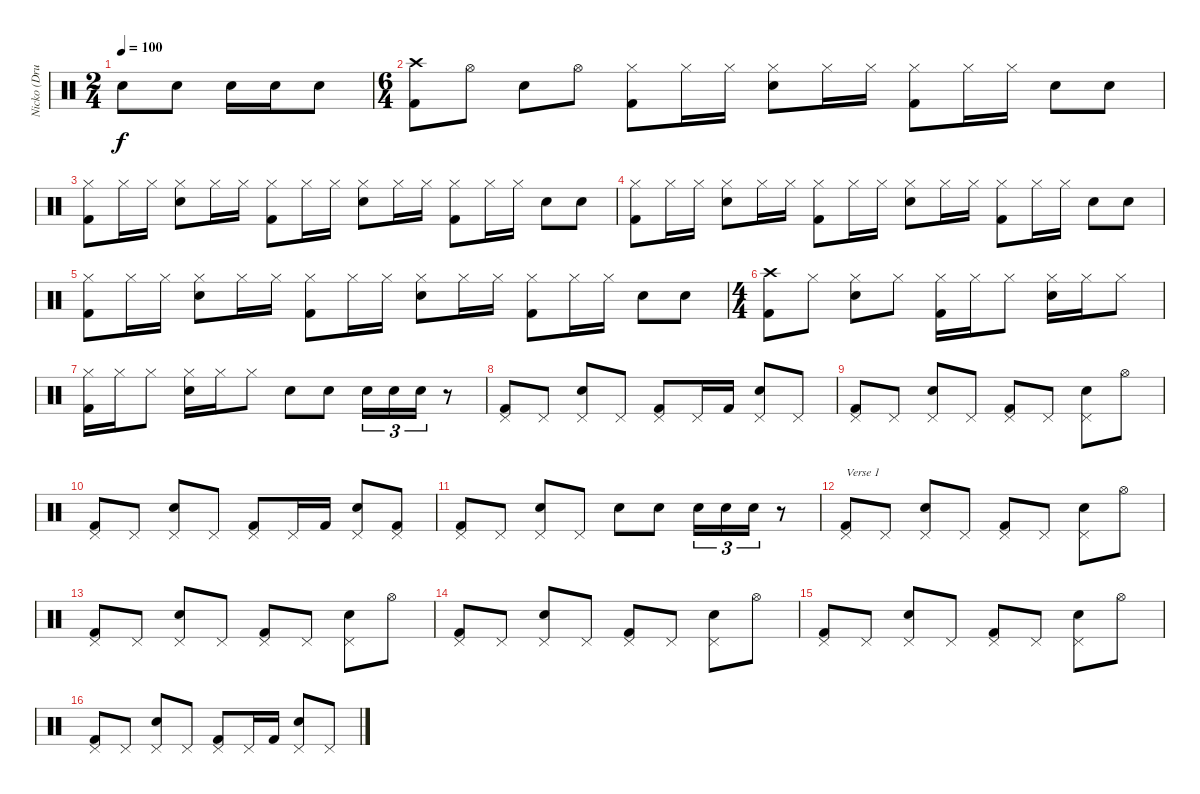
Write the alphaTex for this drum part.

\track ("Nicko (Drums)" "Nicko (Dru") {instrument percussion}
\staff {score}
\articulation defaults
\ts (2 4)
\tempo 100
\clef neutral
\ks c "Snare (hit) 2".8{dy f} "Snare (hit) 2".8 "Snare (hit) 2".16 "Snare (hit) 2".16 "Snare (hit) 2".8
|
\ts (6 4)
("Crash high (hit)" "Kick (hit) 2").8 "Hi-Hat (open)".8 "Snare (hit) 2".8 "Hi-Hat (open)".8 ("Hi-Hat (closed)" "Kick (hit) 2").8 "Hi-Hat (closed)".16 "Hi-Hat (closed)".16 ("Hi-Hat (closed)" "Snare (hit) 2").8 "Hi-Hat (closed)".16 "Hi-Hat (closed)".16 ("Hi-Hat (closed)" "Kick (hit) 2").8 "Hi-Hat (closed)".16 "Hi-Hat (closed)".16 "Snare (hit) 2".8 "Snare (hit) 2".8 |
("Hi-Hat (closed)" "Kick (hit) 2").8 "Hi-Hat (closed)".16 "Hi-Hat (closed)".16 ("Hi-Hat (closed)" "Snare (hit) 2").8 "Hi-Hat (closed)".16 "Hi-Hat (closed)".16 ("Hi-Hat (closed)" "Kick (hit) 2").8 "Hi-Hat (closed)".16 "Hi-Hat (closed)".16 ("Hi-Hat (closed)" "Snare (hit) 2").8 "Hi-Hat (closed)".16 "Hi-Hat (closed)".16 ("Hi-Hat (closed)" "Kick (hit) 2").8 "Hi-Hat (closed)".16 "Hi-Hat (closed)".16 "Snare (hit) 2".8 "Snare (hit) 2".8 |
("Hi-Hat (closed)" "Kick (hit) 2").8 "Hi-Hat (closed)".16 "Hi-Hat (closed)".16 ("Hi-Hat (closed)" "Snare (hit) 2").8 "Hi-Hat (closed)".16 "Hi-Hat (closed)".16 ("Hi-Hat (closed)" "Kick (hit) 2").8 "Hi-Hat (closed)".16 "Hi-Hat (closed)".16 ("Hi-Hat (closed)" "Snare (hit) 2").8 "Hi-Hat (closed)".16 "Hi-Hat (closed)".16 ("Hi-Hat (closed)" "Kick (hit) 2").8 "Hi-Hat (closed)".16 "Hi-Hat (closed)".16 "Snare (hit) 2".8 "Snare (hit) 2".8 |
("Hi-Hat (closed)" "Kick (hit) 2").8 "Hi-Hat (closed)".16 "Hi-Hat (closed)".16 ("Hi-Hat (closed)" "Snare (hit) 2").8 "Hi-Hat (closed)".16 "Hi-Hat (closed)".16 ("Hi-Hat (closed)" "Kick (hit) 2").8 "Hi-Hat (closed)".16 "Hi-Hat (closed)".16 ("Hi-Hat (closed)" "Snare (hit) 2").8 "Hi-Hat (closed)".16 "Hi-Hat (closed)".16 ("Hi-Hat (closed)" "Kick (hit) 2").8 "Hi-Hat (closed)".16 "Hi-Hat (closed)".16 "Snare (hit) 2".8 "Snare (hit) 2".8 |
\ts (4 4)
("Crash high (hit)" "Kick (hit) 2").8 "Hi-Hat (closed)".8 ("Hi-Hat (closed)" "Snare (hit) 2").8 "Hi-Hat (closed)".8 ("Hi-Hat (closed)" "Kick (hit) 2").16 "Hi-Hat (closed)".16 "Hi-Hat (closed)".8 ("Hi-Hat (closed)" "Snare (hit) 2").16 "Hi-Hat (closed)".16 "Hi-Hat (closed)".8 |
("Hi-Hat (closed)" "Kick (hit) 2").16 "Hi-Hat (closed)".16 "Hi-Hat (closed)".8 ("Hi-Hat (closed)" "Snare (hit) 2").16 "Hi-Hat (closed)".16 "Hi-Hat (closed)".8 "Snare (hit) 2".8 "Snare (hit) 2".8 "Snare (hit) 2".16{tu (3 2)} "Snare (hit) 2".16{tu (3 2)} "Snare (hit) 2".16{tu (3 2)} r.8 |
("Pedal Hi-Hat (hit)" "Kick (hit) 2").8 "Pedal Hi-Hat (hit)".8 ("Pedal Hi-Hat (hit)" "Snare (hit) 2").8 "Pedal Hi-Hat (hit)".8 ("Pedal Hi-Hat (hit)" "Kick (hit) 2").8 "Pedal Hi-Hat (hit)".16 "Kick (hit) 2".16 ("Pedal Hi-Hat (hit)" "Snare (hit) 2").8 "Pedal Hi-Hat (hit)".8 |
("Pedal Hi-Hat (hit)" "Kick (hit) 2").8 "Pedal Hi-Hat (hit)".8 ("Pedal Hi-Hat (hit)" "Snare (hit) 2").8 "Pedal Hi-Hat (hit)".8 ("Pedal Hi-Hat (hit)" "Kick (hit) 2").8 "Pedal Hi-Hat (hit)".8 ("Pedal Hi-Hat (hit)" "Snare (hit) 2").8 "Hi-Hat (open)".8 |
("Pedal Hi-Hat (hit)" "Kick (hit) 2").8 "Pedal Hi-Hat (hit)".8 ("Pedal Hi-Hat (hit)" "Snare (hit) 2").8 "Pedal Hi-Hat (hit)".8 ("Pedal Hi-Hat (hit)" "Kick (hit) 2").8 "Pedal Hi-Hat (hit)".16 "Kick (hit) 2".16 ("Pedal Hi-Hat (hit)" "Snare (hit) 2").8 ("Pedal Hi-Hat (hit)" "Kick (hit) 2").8 |
("Pedal Hi-Hat (hit)" "Kick (hit) 2").8 "Pedal Hi-Hat (hit)".8 ("Pedal Hi-Hat (hit)" "Snare (hit) 2").8 "Pedal Hi-Hat (hit)".8 "Snare (hit) 2".8 "Snare (hit) 2".8 "Snare (hit) 2".16{tu (3 2)} "Snare (hit) 2".16{tu (3 2)} "Snare (hit) 2".16{tu (3 2)} r.8 |
("Pedal Hi-Hat (hit)" "Kick (hit) 2").8{txt "Verse 1"} "Pedal Hi-Hat (hit)".8 ("Pedal Hi-Hat (hit)" "Snare (hit) 2").8 "Pedal Hi-Hat (hit)".8 ("Pedal Hi-Hat (hit)" "Kick (hit) 2").8 "Pedal Hi-Hat (hit)".8 ("Pedal Hi-Hat (hit)" "Snare (hit) 2").8 "Hi-Hat (open)".8 |
("Pedal Hi-Hat (hit)" "Kick (hit) 2").8 "Pedal Hi-Hat (hit)".8 ("Pedal Hi-Hat (hit)" "Snare (hit) 2").8 "Pedal Hi-Hat (hit)".8 ("Pedal Hi-Hat (hit)" "Kick (hit) 2").8 "Pedal Hi-Hat (hit)".8 ("Pedal Hi-Hat (hit)" "Snare (hit) 2").8 "Hi-Hat (open)".8 |
("Pedal Hi-Hat (hit)" "Kick (hit) 2").8 "Pedal Hi-Hat (hit)".8 ("Pedal Hi-Hat (hit)" "Snare (hit) 2").8 "Pedal Hi-Hat (hit)".8 ("Pedal Hi-Hat (hit)" "Kick (hit) 2").8 "Pedal Hi-Hat (hit)".8 ("Pedal Hi-Hat (hit)" "Snare (hit) 2").8 "Hi-Hat (open)".8 |
("Pedal Hi-Hat (hit)" "Kick (hit) 2").8 "Pedal Hi-Hat (hit)".8 ("Pedal Hi-Hat (hit)" "Snare (hit) 2").8 "Pedal Hi-Hat (hit)".8 ("Pedal Hi-Hat (hit)" "Kick (hit) 2").8 "Pedal Hi-Hat (hit)".8 ("Pedal Hi-Hat (hit)" "Snare (hit) 2").8 "Hi-Hat (open)".8 |
("Pedal Hi-Hat (hit)" "Kick (hit) 2").8 "Pedal Hi-Hat (hit)".8 ("Pedal Hi-Hat (hit)" "Snare (hit) 2").8 "Pedal Hi-Hat (hit)".8 ("Pedal Hi-Hat (hit)" "Kick (hit) 2").8 "Pedal Hi-Hat (hit)".16 "Kick (hit) 2".16 ("Pedal Hi-Hat (hit)" "Snare (hit) 2").8 "Pedal Hi-Hat (hit)".8
